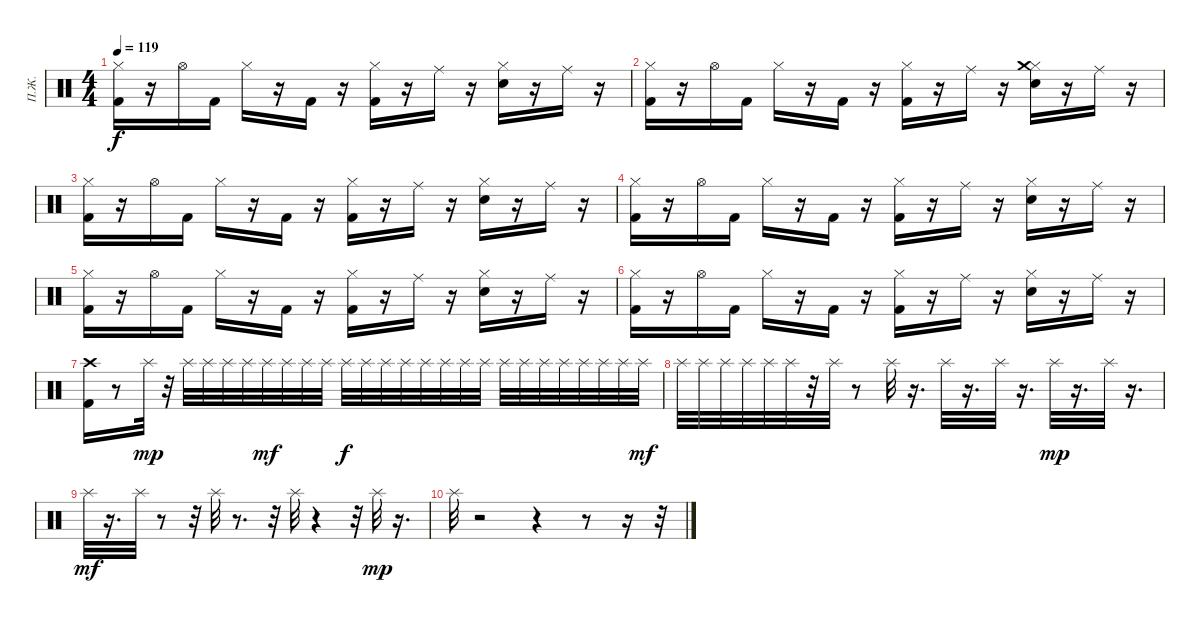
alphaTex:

\track ("П.Ж." "П.Ж.") {instrument percussion}
\staff {score}
\articulation defaults
\ts (4 4)
\tempo 119
\clef neutral
\ks c
("Kick (hit) 2" "Hi-Hat (closed)").16{dy f} r.16 "Hi-Hat (open)".16 "Kick (hit) 2".16 "Hi-Hat (closed)".16 r.16 "Kick (hit) 2".16 r.16 ("Kick (hit) 2" "Hi-Hat (closed)").16 r.16 "Ride (middle)".16 r.16 ("Hi-Hat (closed)" "Electric Snare (hit)").16 r.16 "Ride (middle)".16 r.16 |
("Kick (hit) 2" "Hi-Hat (closed)").16 r.16 "Hi-Hat (open)".16 "Kick (hit) 2".16 "Hi-Hat (closed)".16 r.16 "Kick (hit) 2".16 r.16 ("Kick (hit) 2" "Hi-Hat (closed)").16 r.16 "Ride (middle)".16 r.16 ("Hi-Hat (closed)" "Electric Snare (hit)" "Crash medium (hit)").16 r.16 "Ride (middle)".16 r.16 |
("Kick (hit) 2" "Hi-Hat (closed)").16 r.16 "Hi-Hat (open)".16 "Kick (hit) 2".16 "Hi-Hat (closed)".16 r.16 "Kick (hit) 2".16 r.16 ("Kick (hit) 2" "Hi-Hat (closed)").16 r.16 "Ride (middle)".16 r.16 ("Hi-Hat (closed)" "Electric Snare (hit)").16 r.16 "Ride (middle)".16 r.16 |
("Kick (hit) 2" "Hi-Hat (closed)").16 r.16 "Hi-Hat (open)".16 "Kick (hit) 2".16 "Hi-Hat (closed)".16 r.16 "Kick (hit) 2".16 r.16 ("Kick (hit) 2" "Hi-Hat (closed)").16 r.16 "Ride (middle)".16 r.16 ("Hi-Hat (closed)" "Electric Snare (hit)").16 r.16 "Ride (middle)".16 r.16 |
("Kick (hit) 2" "Hi-Hat (closed)").16 r.16 "Hi-Hat (open)".16 "Kick (hit) 2".16 "Hi-Hat (closed)".16 r.16 "Kick (hit) 2".16 r.16 ("Kick (hit) 2" "Hi-Hat (closed)").16 r.16 "Ride (middle)".16 r.16 ("Hi-Hat (closed)" "Electric Snare (hit)").16 r.16 "Ride (middle)".16 r.16 |
("Kick (hit) 2" "Hi-Hat (closed)").16 r.16 "Hi-Hat (open)".16 "Kick (hit) 2".16 "Hi-Hat (closed)".16 r.16 "Kick (hit) 2".16 r.16 ("Kick (hit) 2" "Hi-Hat (closed)").16 r.16 "Ride (middle)".16 r.16 ("Hi-Hat (closed)" "Electric Snare (hit)").16 r.16 "Ride (middle)".16 r.16 |
("Crash high (hit)" "Kick (hit) 2").16 r.8 "Splash (hit)".32{dy mp} r.32 "Splash (hit)".32 "Splash (hit)".32 "Splash (hit)".32 "Splash (hit)".32 "Splash (hit)".32{dy mf} "Splash (hit)".32 "Splash (hit)".32 "Splash (hit)".32 "Splash (hit)".32{dy f} "Splash (hit)".32 "Splash (hit)".32 "Splash (hit)".32 "Splash (hit)".32 "Splash (hit)".32 "Splash (hit)".32 "Splash (hit)".32 "Splash (hit)".32 "Splash (hit)".32 "Splash (hit)".32 "Splash (hit)".32 "Splash (hit)".32 "Splash (hit)".32 "Splash (hit)".32 "Splash (hit)".32{dy mf} |
"Splash (hit)".32 "Splash (hit)".32 "Splash (hit)".32 "Splash (hit)".32 "Splash (hit)".32 "Splash (hit)".32 r.32 "Splash (hit)".32 r.8 "Splash (hit)".32 r.16{d} "Splash (hit)".32 r.16{d} "Splash (hit)".32 r.16{d} "Splash (hit)".32{dy mp} r.16{d} "Splash (hit)".32 r.16{d} |
"Splash (hit)".32{dy mf} r.16{d} "Splash (hit)".32 r.8 r.32 "Splash (hit)".32 r.8{d} r.32 "Splash (hit)".32 r.4 r.32 "Splash (hit)".32{dy mp} r.16{d} |
"Splash (hit)".32 r.2 r.4 r.8 r.16 r.32
